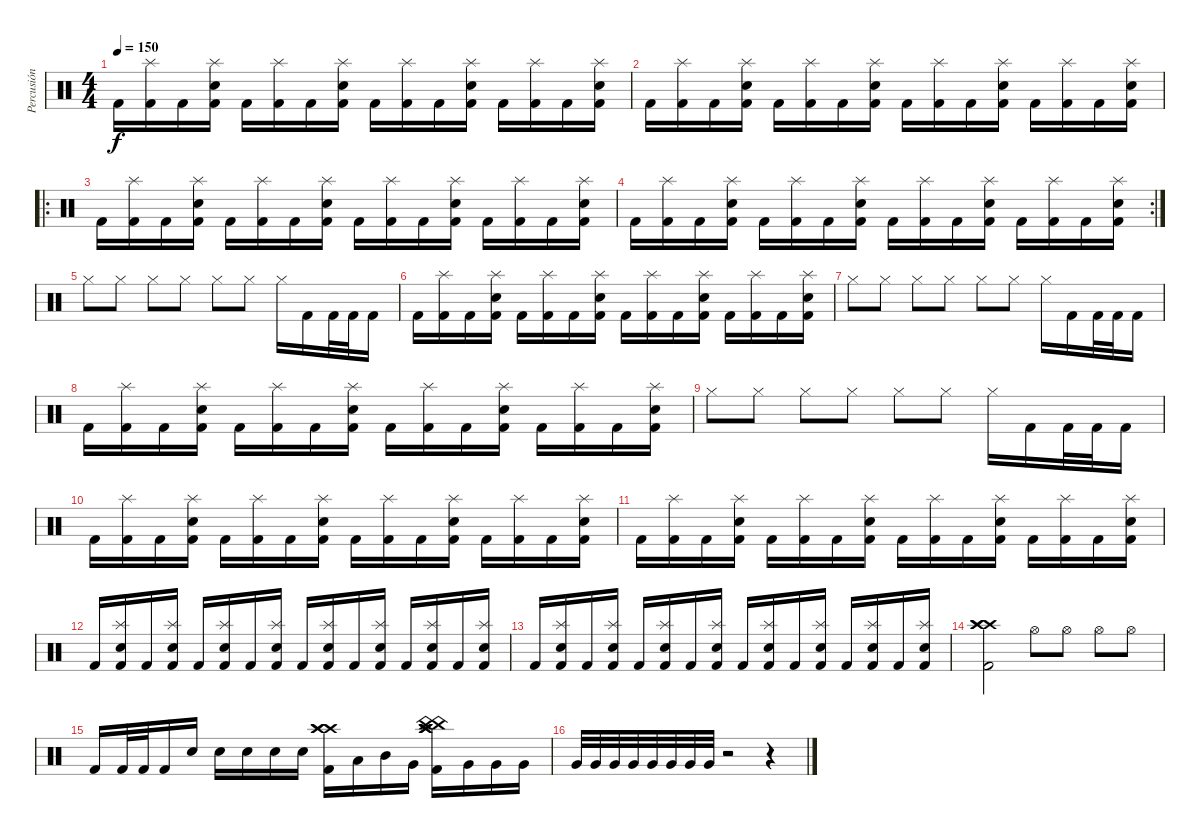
\track ("Percusión" "Percusión") {instrument percussion}
\staff {score}
\articulation defaults
\ts (4 4)
\tempo 150
\clef neutral
\ks c "Kick (hit) 2".16{dy f}
("Kick (hit) 2" "Splash (hit)").16 "Kick (hit) 2".16 ("Kick (hit) 2" "Splash (hit)" "Snare (hit) 2").16 "Kick (hit) 2".16 ("Kick (hit) 2" "Splash (hit)").16 "Kick (hit) 2".16 ("Kick (hit) 2" "Splash (hit)" "Snare (hit) 2").16 "Kick (hit) 2".16 ("Kick (hit) 2" "Splash (hit)").16 "Kick (hit) 2".16 ("Kick (hit) 2" "Splash (hit)" "Snare (hit) 2").16 "Kick (hit) 2".16 ("Kick (hit) 2" "Splash (hit)").16 "Kick (hit) 2".16 ("Kick (hit) 2" "Splash (hit)" "Snare (hit) 2").16 |
"Kick (hit) 2".16 ("Kick (hit) 2" "Splash (hit)").16 "Kick (hit) 2".16 ("Kick (hit) 2" "Splash (hit)" "Snare (hit) 2").16 "Kick (hit) 2".16 ("Kick (hit) 2" "Splash (hit)").16 "Kick (hit) 2".16 ("Kick (hit) 2" "Splash (hit)" "Snare (hit) 2").16 "Kick (hit) 2".16 ("Kick (hit) 2" "Splash (hit)").16 "Kick (hit) 2".16 ("Kick (hit) 2" "Splash (hit)" "Snare (hit) 2").16 "Kick (hit) 2".16 ("Kick (hit) 2" "Splash (hit)").16 "Kick (hit) 2".16 ("Kick (hit) 2" "Splash (hit)" "Snare (hit) 2").16 |
\ro "Kick (hit) 2".16
("Kick (hit) 2" "Splash (hit)").16 "Kick (hit) 2".16 ("Kick (hit) 2" "Splash (hit)" "Snare (hit) 2").16 "Kick (hit) 2".16 ("Kick (hit) 2" "Splash (hit)").16 "Kick (hit) 2".16 ("Kick (hit) 2" "Splash (hit)" "Snare (hit) 2").16 "Kick (hit) 2".16 ("Kick (hit) 2" "Splash (hit)").16 "Kick (hit) 2".16 ("Kick (hit) 2" "Splash (hit)" "Snare (hit) 2").16 "Kick (hit) 2".16 ("Kick (hit) 2" "Splash (hit)").16 "Kick (hit) 2".16 ("Kick (hit) 2" "Splash (hit)" "Snare (hit) 2").16 |
\rc 2 "Kick (hit) 2".16
("Kick (hit) 2" "Splash (hit)").16 "Kick (hit) 2".16 ("Kick (hit) 2" "Splash (hit)" "Snare (hit) 2").16 "Kick (hit) 2".16 ("Kick (hit) 2" "Splash (hit)").16 "Kick (hit) 2".16 ("Kick (hit) 2" "Splash (hit)" "Snare (hit) 2").16 "Kick (hit) 2".16 ("Kick (hit) 2" "Splash (hit)").16 "Kick (hit) 2".16 ("Kick (hit) 2" "Splash (hit)" "Snare (hit) 2").16 "Kick (hit) 2".16 ("Kick (hit) 2" "Splash (hit)").16 "Kick (hit) 2".16 ("Kick (hit) 2" "Splash (hit)" "Snare (hit) 2").16 |
"Hi-Hat (closed)".8 "Hi-Hat (closed)".8 "Hi-Hat (closed)".8 "Hi-Hat (closed)".8 "Hi-Hat (closed)".8 "Hi-Hat (closed)".8 "Hi-Hat (closed)".16 "Kick (hit) 2".16 "Kick (hit) 2".32 "Kick (hit) 2".32 "Kick (hit) 2".16 |
"Kick (hit) 2".16 ("Kick (hit) 2" "Splash (hit)").16 "Kick (hit) 2".16 ("Kick (hit) 2" "Splash (hit)" "Snare (hit) 2").16 "Kick (hit) 2".16 ("Kick (hit) 2" "Splash (hit)").16 "Kick (hit) 2".16 ("Kick (hit) 2" "Splash (hit)" "Snare (hit) 2").16 "Kick (hit) 2".16 ("Kick (hit) 2" "Splash (hit)").16 "Kick (hit) 2".16 ("Kick (hit) 2" "Splash (hit)" "Snare (hit) 2").16 "Kick (hit) 2".16 ("Kick (hit) 2" "Splash (hit)").16 "Kick (hit) 2".16 ("Kick (hit) 2" "Splash (hit)" "Snare (hit) 2").16 |
"Hi-Hat (closed)".8 "Hi-Hat (closed)".8 "Hi-Hat (closed)".8 "Hi-Hat (closed)".8 "Hi-Hat (closed)".8 "Hi-Hat (closed)".8 "Hi-Hat (closed)".16 "Kick (hit) 2".16 "Kick (hit) 2".32 "Kick (hit) 2".32 "Kick (hit) 2".16 |
"Kick (hit) 2".16 ("Kick (hit) 2" "Splash (hit)").16 "Kick (hit) 2".16 ("Kick (hit) 2" "Splash (hit)" "Snare (hit) 2").16 "Kick (hit) 2".16 ("Kick (hit) 2" "Splash (hit)").16 "Kick (hit) 2".16 ("Kick (hit) 2" "Splash (hit)" "Snare (hit) 2").16 "Kick (hit) 2".16 ("Kick (hit) 2" "Splash (hit)").16 "Kick (hit) 2".16 ("Kick (hit) 2" "Splash (hit)" "Snare (hit) 2").16 "Kick (hit) 2".16 ("Kick (hit) 2" "Splash (hit)").16 "Kick (hit) 2".16 ("Kick (hit) 2" "Splash (hit)" "Snare (hit) 2").16 |
"Hi-Hat (closed)".8 "Hi-Hat (closed)".8 "Hi-Hat (closed)".8 "Hi-Hat (closed)".8 "Hi-Hat (closed)".8 "Hi-Hat (closed)".8 "Hi-Hat (closed)".16 "Kick (hit) 2".16 "Kick (hit) 2".32 "Kick (hit) 2".32 "Kick (hit) 2".16 |
"Kick (hit) 2".16 ("Kick (hit) 2" "Splash (hit)").16 "Kick (hit) 2".16 ("Kick (hit) 2" "Splash (hit)" "Snare (hit) 2").16 "Kick (hit) 2".16 ("Kick (hit) 2" "Splash (hit)").16 "Kick (hit) 2".16 ("Kick (hit) 2" "Splash (hit)" "Snare (hit) 2").16 "Kick (hit) 2".16 ("Kick (hit) 2" "Splash (hit)").16 "Kick (hit) 2".16 ("Kick (hit) 2" "Splash (hit)" "Snare (hit) 2").16 "Kick (hit) 2".16 ("Kick (hit) 2" "Splash (hit)").16 "Kick (hit) 2".16 ("Kick (hit) 2" "Splash (hit)" "Snare (hit) 2").16 |
"Kick (hit) 2".16 ("Kick (hit) 2" "Splash (hit)").16 "Kick (hit) 2".16 ("Kick (hit) 2" "Splash (hit)" "Snare (hit) 2").16 "Kick (hit) 2".16 ("Kick (hit) 2" "Splash (hit)").16 "Kick (hit) 2".16 ("Kick (hit) 2" "Splash (hit)" "Snare (hit) 2").16 "Kick (hit) 2".16 ("Kick (hit) 2" "Splash (hit)").16 "Kick (hit) 2".16 ("Kick (hit) 2" "Splash (hit)" "Snare (hit) 2").16 "Kick (hit) 2".16 ("Kick (hit) 2" "Splash (hit)").16 "Kick (hit) 2".16 ("Kick (hit) 2" "Splash (hit)" "Snare (hit) 2").16 |
"Kick (hit) 2".16 ("Kick (hit) 2" "Splash (hit)" "Snare (hit) 2").16 "Kick (hit) 2".16 ("Kick (hit) 2" "Splash (hit)" "Snare (hit) 2").16 "Kick (hit) 2".16 ("Kick (hit) 2" "Splash (hit)" "Snare (hit) 2").16 "Kick (hit) 2".16 ("Kick (hit) 2" "Splash (hit)" "Snare (hit) 2").16 "Kick (hit) 2".16 ("Kick (hit) 2" "Splash (hit)" "Snare (hit) 2").16 "Kick (hit) 2".16 ("Kick (hit) 2" "Splash (hit)" "Snare (hit) 2").16 "Kick (hit) 2".16 ("Kick (hit) 2" "Splash (hit)" "Snare (hit) 2").16 "Kick (hit) 2".16 ("Kick (hit) 2" "Splash (hit)" "Snare (hit) 2").16 |
"Kick (hit) 2".16 ("Kick (hit) 2" "Splash (hit)" "Snare (hit) 2").16 "Kick (hit) 2".16 ("Kick (hit) 2" "Splash (hit)" "Snare (hit) 2").16 "Kick (hit) 2".16 ("Kick (hit) 2" "Splash (hit)" "Snare (hit) 2").16 "Kick (hit) 2".16 ("Kick (hit) 2" "Splash (hit)" "Snare (hit) 2").16 "Kick (hit) 2".16 ("Kick (hit) 2" "Splash (hit)" "Snare (hit) 2").16 "Kick (hit) 2".16 ("Kick (hit) 2" "Splash (hit)" "Snare (hit) 2").16 "Kick (hit) 2".16 ("Kick (hit) 2" "Splash (hit)" "Snare (hit) 2").16 "Kick (hit) 2".16 ("Kick (hit) 2" "Splash (hit)" "Snare (hit) 2").16 |
("Kick (hit) 2" "Crash high (hit)" "Crash high (hit)" "Crash high (hit)").2 "Hi-Hat (open)".8 "Hi-Hat (open)".8 "Hi-Hat (open)".8 "Hi-Hat (open)".8 |
"Kick (hit) 2".16 "Kick (hit) 2".32 "Kick (hit) 2".32 "Kick (hit) 2".16 "Snare (hit) 2".16 "Snare (hit) 2".16 "Snare (hit) 2".16 "Snare (hit) 2".16 "Snare (hit) 2".16 ("Crash high (hit)" "Crash high (hit)" "Crash high (hit)" "Kick (hit) 2").16 "Low Tom (hit)".16 "Mid Tom (hit)".16 "Very Low Tom (hit)".16 ("Kick (hit) 2" "Crash high (hit)" "Crash high (hit)" "Crash high (hit)" "China (hit)" "China (hit)").16 "Very Low Tom (hit)".16 "Very Low Tom (hit)".16 "Very Low Tom (hit)".16 |
"Very Low Tom (hit)".32 "Very Low Tom (hit)".32 "Very Low Tom (hit)".32 "Very Low Tom (hit)".32 "Very Low Tom (hit)".32 "Very Low Tom (hit)".32 "Very Low Tom (hit)".32 "Very Low Tom (hit)".32 r.2 r.4
